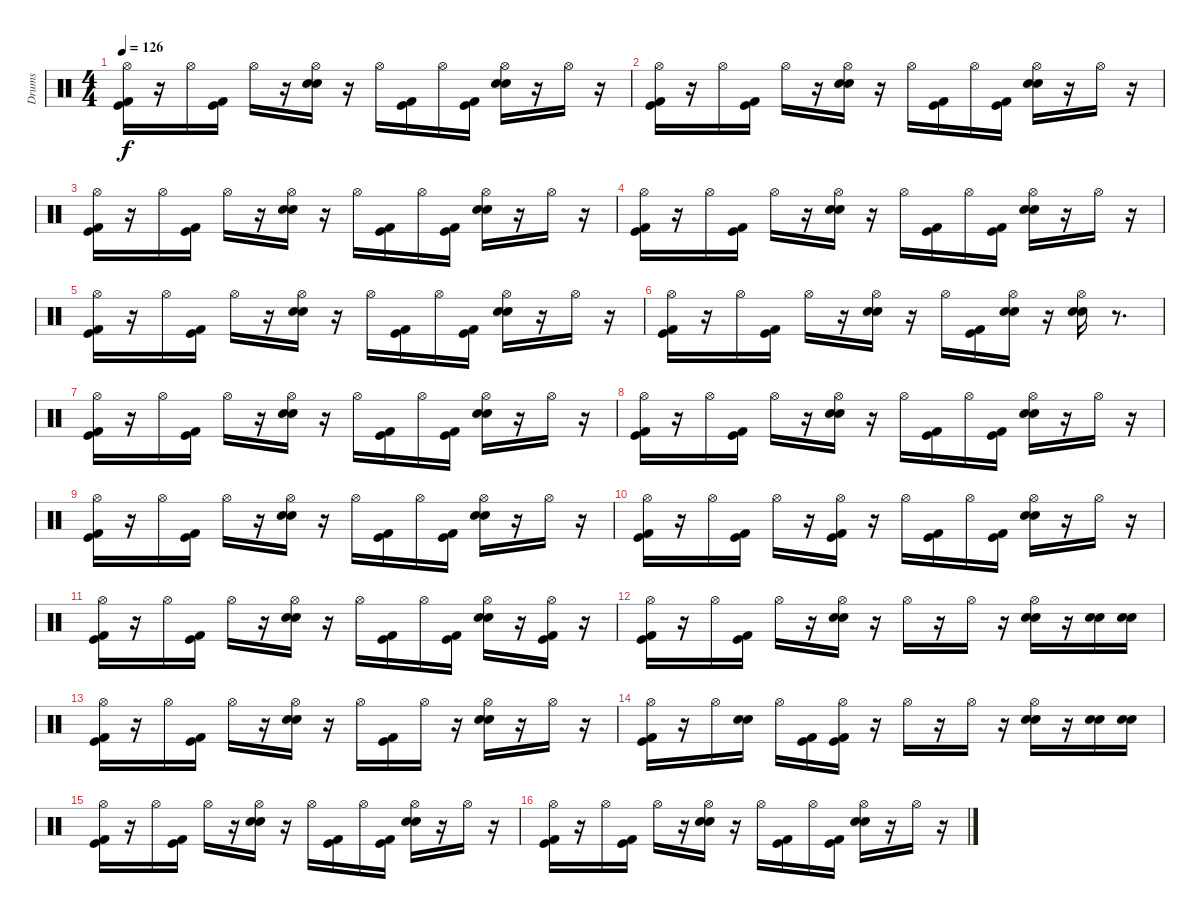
\track ("Drums" "Drums") {instrument percussion}
\staff {score}
\articulation defaults
\ts (4 4)
\tempo 126
\clef neutral
\ks c
("Hi-Hat (open)" "Kick (hit) 2" "Kick (hit)").16{dy f} r.16 "Hi-Hat (open)".16 ("Kick (hit) 2" "Kick (hit)").16 "Hi-Hat (open)".16 r.16 ("Electric Snare (hit)" "Snare (hit) 2" "Hi-Hat (open)").16 r.16 "Hi-Hat (open)".16 ("Kick (hit) 2" "Kick (hit)").16 "Hi-Hat (open)".16 ("Kick (hit) 2" "Kick (hit)").16 ("Electric Snare (hit)" "Snare (hit) 2" "Hi-Hat (open)").16 r.16 "Hi-Hat (open)".16 r.16 |
("Hi-Hat (open)" "Kick (hit) 2" "Kick (hit)").16 r.16 "Hi-Hat (open)".16 ("Kick (hit) 2" "Kick (hit)").16 "Hi-Hat (open)".16 r.16 ("Electric Snare (hit)" "Snare (hit) 2" "Hi-Hat (open)").16 r.16 "Hi-Hat (open)".16 ("Kick (hit) 2" "Kick (hit)").16 "Hi-Hat (open)".16 ("Kick (hit) 2" "Kick (hit)").16 ("Electric Snare (hit)" "Snare (hit) 2" "Hi-Hat (open)").16 r.16 "Hi-Hat (open)".16 r.16 |
("Hi-Hat (open)" "Kick (hit) 2" "Kick (hit)").16 r.16 "Hi-Hat (open)".16 ("Kick (hit) 2" "Kick (hit)").16 "Hi-Hat (open)".16 r.16 ("Electric Snare (hit)" "Snare (hit) 2" "Hi-Hat (open)").16 r.16 "Hi-Hat (open)".16 ("Kick (hit) 2" "Kick (hit)").16 "Hi-Hat (open)".16 ("Kick (hit) 2" "Kick (hit)").16 ("Electric Snare (hit)" "Snare (hit) 2" "Hi-Hat (open)").16 r.16 "Hi-Hat (open)".16 r.16 |
("Hi-Hat (open)" "Kick (hit) 2" "Kick (hit)").16 r.16 "Hi-Hat (open)".16 ("Kick (hit) 2" "Kick (hit)").16 "Hi-Hat (open)".16 r.16 ("Electric Snare (hit)" "Snare (hit) 2" "Hi-Hat (open)").16 r.16 "Hi-Hat (open)".16 ("Kick (hit) 2" "Kick (hit)").16 "Hi-Hat (open)".16 ("Kick (hit) 2" "Kick (hit)").16 ("Electric Snare (hit)" "Snare (hit) 2" "Hi-Hat (open)").16 r.16 "Hi-Hat (open)".16 r.16 |
("Hi-Hat (open)" "Kick (hit) 2" "Kick (hit)").16 r.16 "Hi-Hat (open)".16 ("Kick (hit) 2" "Kick (hit)").16 "Hi-Hat (open)".16 r.16 ("Electric Snare (hit)" "Snare (hit) 2" "Hi-Hat (open)").16 r.16 "Hi-Hat (open)".16 ("Kick (hit) 2" "Kick (hit)").16 "Hi-Hat (open)".16 ("Kick (hit) 2" "Kick (hit)").16 ("Electric Snare (hit)" "Snare (hit) 2" "Hi-Hat (open)").16 r.16 "Hi-Hat (open)".16 r.16 |
("Hi-Hat (open)" "Kick (hit) 2" "Kick (hit)").16 r.16 "Hi-Hat (open)".16 ("Kick (hit) 2" "Kick (hit)").16 "Hi-Hat (open)".16 r.16 ("Electric Snare (hit)" "Snare (hit) 2" "Hi-Hat (open)").16 r.16 "Hi-Hat (open)".16 ("Kick (hit) 2" "Kick (hit)").16 ("Electric Snare (hit)" "Snare (hit) 2" "Hi-Hat (open)").16 r.16 ("Electric Snare (hit)" "Snare (hit) 2" "Hi-Hat (open)").16 r.8{d} |
("Hi-Hat (open)" "Kick (hit) 2" "Kick (hit)").16 r.16 "Hi-Hat (open)".16 ("Kick (hit) 2" "Kick (hit)").16 "Hi-Hat (open)".16 r.16 ("Electric Snare (hit)" "Snare (hit) 2" "Hi-Hat (open)").16 r.16 "Hi-Hat (open)".16 ("Kick (hit) 2" "Kick (hit)").16 "Hi-Hat (open)".16 ("Kick (hit) 2" "Kick (hit)").16 ("Electric Snare (hit)" "Snare (hit) 2" "Hi-Hat (open)").16 r.16 "Hi-Hat (open)".16 r.16 |
("Hi-Hat (open)" "Kick (hit) 2" "Kick (hit)").16 r.16 "Hi-Hat (open)".16 ("Kick (hit) 2" "Kick (hit)").16 "Hi-Hat (open)".16 r.16 ("Electric Snare (hit)" "Snare (hit) 2" "Hi-Hat (open)").16 r.16 "Hi-Hat (open)".16 ("Kick (hit) 2" "Kick (hit)").16 "Hi-Hat (open)".16 ("Kick (hit) 2" "Kick (hit)").16 ("Electric Snare (hit)" "Snare (hit) 2" "Hi-Hat (open)").16 r.16 "Hi-Hat (open)".16 r.16 |
("Hi-Hat (open)" "Kick (hit) 2" "Kick (hit)").16 r.16 "Hi-Hat (open)".16 ("Kick (hit) 2" "Kick (hit)").16 "Hi-Hat (open)".16 r.16 ("Electric Snare (hit)" "Snare (hit) 2" "Hi-Hat (open)").16 r.16 "Hi-Hat (open)".16 ("Kick (hit) 2" "Kick (hit)").16 "Hi-Hat (open)".16 ("Kick (hit) 2" "Kick (hit)").16 ("Electric Snare (hit)" "Snare (hit) 2" "Hi-Hat (open)").16 r.16 "Hi-Hat (open)".16 r.16 |
("Hi-Hat (open)" "Kick (hit) 2" "Kick (hit)").16 r.16 "Hi-Hat (open)".16 ("Kick (hit) 2" "Kick (hit)").16 "Hi-Hat (open)".16 r.16 ("Kick (hit) 2" "Kick (hit)" "Hi-Hat (open)").16 r.16 "Hi-Hat (open)".16 ("Kick (hit) 2" "Kick (hit)").16 "Hi-Hat (open)".16 ("Kick (hit) 2" "Kick (hit)").16 ("Electric Snare (hit)" "Snare (hit) 2" "Hi-Hat (open)").16 r.16 "Hi-Hat (open)".16 r.16 |
("Hi-Hat (open)" "Kick (hit) 2" "Kick (hit)").16 r.16 "Hi-Hat (open)".16 ("Kick (hit) 2" "Kick (hit)").16 "Hi-Hat (open)".16 r.16 ("Electric Snare (hit)" "Snare (hit) 2" "Hi-Hat (open)").16 r.16 "Hi-Hat (open)".16 ("Kick (hit) 2" "Kick (hit)").16 "Hi-Hat (open)".16 ("Kick (hit) 2" "Kick (hit)").16 ("Electric Snare (hit)" "Snare (hit) 2" "Hi-Hat (open)").16 r.16 ("Kick (hit)" "Kick (hit) 2" "Hi-Hat (open)").16 r.16 |
("Hi-Hat (open)" "Kick (hit) 2" "Kick (hit)").16 r.16 "Hi-Hat (open)".16 ("Kick (hit) 2" "Kick (hit)").16 "Hi-Hat (open)".16 r.16 ("Electric Snare (hit)" "Snare (hit) 2" "Hi-Hat (open)").16 r.16 "Hi-Hat (open)".16 r.16 "Hi-Hat (open)".16 r.16 ("Electric Snare (hit)" "Snare (hit) 2" "Hi-Hat (open)").16 r.16 ("Electric Snare (hit)" "Snare (hit) 2").16 ("Electric Snare (hit)" "Snare (hit) 2").16 |
("Hi-Hat (open)" "Kick (hit) 2" "Kick (hit)").16 r.16 "Hi-Hat (open)".16 ("Kick (hit) 2" "Kick (hit)").16 "Hi-Hat (open)".16 r.16 ("Electric Snare (hit)" "Snare (hit) 2" "Hi-Hat (open)").16 r.16 "Hi-Hat (open)".16 ("Kick (hit) 2" "Kick (hit)").16 "Hi-Hat (open)".16 r.16 ("Electric Snare (hit)" "Snare (hit) 2" "Hi-Hat (open)").16 r.16 "Hi-Hat (open)".16 r.16 |
("Hi-Hat (open)" "Kick (hit) 2" "Kick (hit)").16 r.16 "Hi-Hat (open)".16 ("Electric Snare (hit)" "Snare (hit) 2").16 "Hi-Hat (open)".16 ("Kick (hit) 2" "Kick (hit)").16 ("Kick (hit) 2" "Kick (hit)" "Hi-Hat (open)").16 r.16 "Hi-Hat (open)".16 r.16 "Hi-Hat (open)".16 r.16 ("Electric Snare (hit)" "Snare (hit) 2" "Hi-Hat (open)").16 r.16 ("Electric Snare (hit)" "Snare (hit) 2").16 ("Electric Snare (hit)" "Snare (hit) 2").16 |
("Hi-Hat (open)" "Kick (hit) 2" "Kick (hit)").16 r.16 "Hi-Hat (open)".16 ("Kick (hit) 2" "Kick (hit)").16 "Hi-Hat (open)".16 r.16 ("Electric Snare (hit)" "Snare (hit) 2" "Hi-Hat (open)").16 r.16 "Hi-Hat (open)".16 ("Kick (hit) 2" "Kick (hit)").16 "Hi-Hat (open)".16 ("Kick (hit) 2" "Kick (hit)").16 ("Electric Snare (hit)" "Snare (hit) 2" "Hi-Hat (open)").16 r.16 "Hi-Hat (open)".16 r.16 |
("Hi-Hat (open)" "Kick (hit) 2" "Kick (hit)").16 r.16 "Hi-Hat (open)".16 ("Kick (hit) 2" "Kick (hit)").16 "Hi-Hat (open)".16 r.16 ("Electric Snare (hit)" "Snare (hit) 2" "Hi-Hat (open)").16 r.16 "Hi-Hat (open)".16 ("Kick (hit) 2" "Kick (hit)").16 "Hi-Hat (open)".16 ("Kick (hit) 2" "Kick (hit)").16 ("Electric Snare (hit)" "Snare (hit) 2" "Hi-Hat (open)").16 r.16 "Hi-Hat (open)".16 r.16
